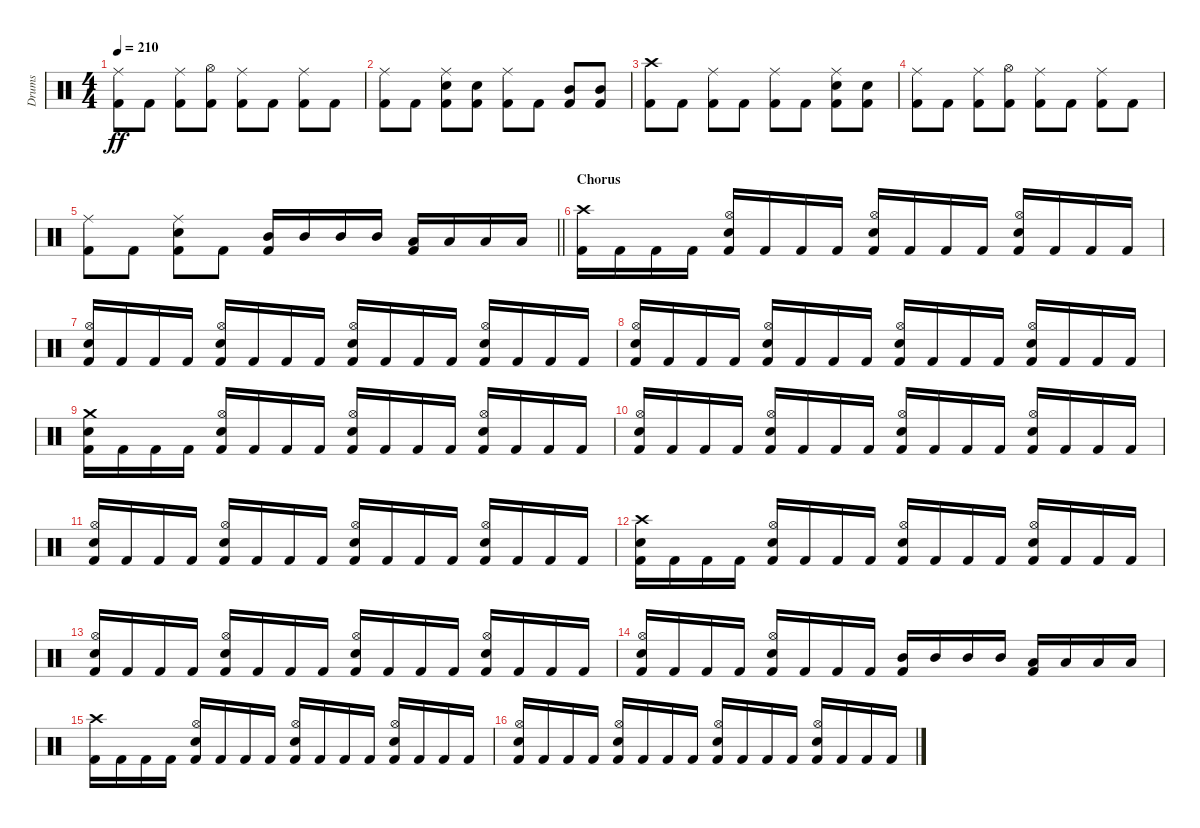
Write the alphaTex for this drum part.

\track ("Drums" "Drums") {instrument percussion}
\staff {score}
\articulation defaults
\ts (4 4)
\tempo 210
\clef neutral
\ks c
("Ride (middle)" "Kick (hit) 2").8{dy ff} "Kick (hit) 2".8 ("Ride (middle)" "Kick (hit) 2").8 ("Hi-Hat (open)" "Kick (hit) 2").8 ("Ride (middle)" "Kick (hit) 2").8 "Kick (hit) 2".8 ("Ride (middle)" "Kick (hit) 2").8 "Kick (hit) 2".8 |
("Ride (middle)" "Kick (hit) 2").8 "Kick (hit) 2".8 ("Ride (middle)" "Snare (hit) 2" "Kick (hit) 2").8 ("Snare (hit) 2" "Kick (hit) 2").8 ("Ride (middle)" "Kick (hit) 2").8 "Kick (hit) 2".8 ("Mid Tom (hit)" "Kick (hit) 2").8 ("Mid Tom (hit)" "Kick (hit) 2").8 |
("Crash high (hit)" "Kick (hit) 2").8 "Kick (hit) 2".8 ("Ride (middle)" "Kick (hit) 2").8 "Kick (hit) 2".8 ("Ride (middle)" "Kick (hit) 2").8 "Kick (hit) 2".8 ("Ride (middle)" "Snare (hit) 2" "Kick (hit) 2").8 ("Snare (hit) 2" "Kick (hit) 2").8 |
("Ride (middle)" "Kick (hit) 2").8 "Kick (hit) 2".8 ("Ride (middle)" "Kick (hit) 2").8 ("Hi-Hat (open)" "Kick (hit) 2").8 ("Ride (middle)" "Kick (hit) 2").8 "Kick (hit) 2".8 ("Ride (middle)" "Kick (hit) 2").8 "Kick (hit) 2".8 |
\barLineRight lightlight
("Ride (middle)" "Kick (hit) 2").8 "Kick (hit) 2".8 ("Ride (middle)" "Snare (hit) 2" "Kick (hit) 2").8 "Kick (hit) 2".8 ("Mid Tom (hit)" "Kick (hit) 2").16 "Mid Tom (hit)".16 "Mid Tom (hit)".16 "Mid Tom (hit)".16 ("Low Tom (hit)" "Kick (hit) 2").16 "Low Tom (hit)".16 "Low Tom (hit)".16 "Low Tom (hit)".16 |
\section ("" "Chorus")
("Crash high (hit)" "Kick (hit) 2").16 "Kick (hit) 2".16 "Kick (hit) 2".16 "Kick (hit) 2".16 ("Hi-Hat (open)" "Snare (hit) 2" "Kick (hit) 2").16 "Kick (hit) 2".16 "Kick (hit) 2".16 "Kick (hit) 2".16 ("Hi-Hat (open)" "Snare (hit) 2" "Kick (hit) 2").16 "Kick (hit) 2".16 "Kick (hit) 2".16 "Kick (hit) 2".16 ("Hi-Hat (open)" "Snare (hit) 2" "Kick (hit) 2").16 "Kick (hit) 2".16 "Kick (hit) 2".16 "Kick (hit) 2".16 |
("Hi-Hat (open)" "Snare (hit) 2" "Kick (hit) 2").16 "Kick (hit) 2".16 "Kick (hit) 2".16 "Kick (hit) 2".16 ("Hi-Hat (open)" "Snare (hit) 2" "Kick (hit) 2").16 "Kick (hit) 2".16 "Kick (hit) 2".16 "Kick (hit) 2".16 ("Hi-Hat (open)" "Snare (hit) 2" "Kick (hit) 2").16 "Kick (hit) 2".16 "Kick (hit) 2".16 "Kick (hit) 2".16 ("Hi-Hat (open)" "Snare (hit) 2" "Kick (hit) 2").16 "Kick (hit) 2".16 "Kick (hit) 2".16 "Kick (hit) 2".16 |
("Hi-Hat (open)" "Snare (hit) 2" "Kick (hit) 2").16 "Kick (hit) 2".16 "Kick (hit) 2".16 "Kick (hit) 2".16 ("Hi-Hat (open)" "Snare (hit) 2" "Kick (hit) 2").16 "Kick (hit) 2".16 "Kick (hit) 2".16 "Kick (hit) 2".16 ("Hi-Hat (open)" "Snare (hit) 2" "Kick (hit) 2").16 "Kick (hit) 2".16 "Kick (hit) 2".16 "Kick (hit) 2".16 ("Hi-Hat (open)" "Snare (hit) 2" "Kick (hit) 2").16 "Kick (hit) 2".16 "Kick (hit) 2".16 "Kick (hit) 2".16 |
("Crash medium (hit)" "Snare (hit) 2" "Kick (hit) 2").16 "Kick (hit) 2".16 "Kick (hit) 2".16 "Kick (hit) 2".16 ("Hi-Hat (open)" "Snare (hit) 2" "Kick (hit) 2").16 "Kick (hit) 2".16 "Kick (hit) 2".16 "Kick (hit) 2".16 ("Hi-Hat (open)" "Snare (hit) 2" "Kick (hit) 2").16 "Kick (hit) 2".16 "Kick (hit) 2".16 "Kick (hit) 2".16 ("Hi-Hat (open)" "Snare (hit) 2" "Kick (hit) 2").16 "Kick (hit) 2".16 "Kick (hit) 2".16 "Kick (hit) 2".16 |
("Hi-Hat (open)" "Snare (hit) 2" "Kick (hit) 2").16 "Kick (hit) 2".16 "Kick (hit) 2".16 "Kick (hit) 2".16 ("Hi-Hat (open)" "Snare (hit) 2" "Kick (hit) 2").16 "Kick (hit) 2".16 "Kick (hit) 2".16 "Kick (hit) 2".16 ("Hi-Hat (open)" "Snare (hit) 2" "Kick (hit) 2").16 "Kick (hit) 2".16 "Kick (hit) 2".16 "Kick (hit) 2".16 ("Hi-Hat (open)" "Snare (hit) 2" "Kick (hit) 2").16 "Kick (hit) 2".16 "Kick (hit) 2".16 "Kick (hit) 2".16 |
("Hi-Hat (open)" "Snare (hit) 2" "Kick (hit) 2").16 "Kick (hit) 2".16 "Kick (hit) 2".16 "Kick (hit) 2".16 ("Hi-Hat (open)" "Snare (hit) 2" "Kick (hit) 2").16 "Kick (hit) 2".16 "Kick (hit) 2".16 "Kick (hit) 2".16 ("Hi-Hat (open)" "Snare (hit) 2" "Kick (hit) 2").16 "Kick (hit) 2".16 "Kick (hit) 2".16 "Kick (hit) 2".16 ("Hi-Hat (open)" "Snare (hit) 2" "Kick (hit) 2").16 "Kick (hit) 2".16 "Kick (hit) 2".16 "Kick (hit) 2".16 |
("Crash high (hit)" "Snare (hit) 2" "Kick (hit) 2").16 "Kick (hit) 2".16 "Kick (hit) 2".16 "Kick (hit) 2".16 ("Hi-Hat (open)" "Snare (hit) 2" "Kick (hit) 2").16 "Kick (hit) 2".16 "Kick (hit) 2".16 "Kick (hit) 2".16 ("Hi-Hat (open)" "Snare (hit) 2" "Kick (hit) 2").16 "Kick (hit) 2".16 "Kick (hit) 2".16 "Kick (hit) 2".16 ("Hi-Hat (open)" "Snare (hit) 2" "Kick (hit) 2").16 "Kick (hit) 2".16 "Kick (hit) 2".16 "Kick (hit) 2".16 |
("Hi-Hat (open)" "Snare (hit) 2" "Kick (hit) 2").16 "Kick (hit) 2".16 "Kick (hit) 2".16 "Kick (hit) 2".16 ("Hi-Hat (open)" "Snare (hit) 2" "Kick (hit) 2").16 "Kick (hit) 2".16 "Kick (hit) 2".16 "Kick (hit) 2".16 ("Hi-Hat (open)" "Snare (hit) 2" "Kick (hit) 2").16 "Kick (hit) 2".16 "Kick (hit) 2".16 "Kick (hit) 2".16 ("Hi-Hat (open)" "Snare (hit) 2" "Kick (hit) 2").16 "Kick (hit) 2".16 "Kick (hit) 2".16 "Kick (hit) 2".16 |
("Hi-Hat (open)" "Snare (hit) 2" "Kick (hit) 2").16 "Kick (hit) 2".16 "Kick (hit) 2".16 "Kick (hit) 2".16 ("Hi-Hat (open)" "Snare (hit) 2" "Kick (hit) 2").16 "Kick (hit) 2".16 "Kick (hit) 2".16 "Kick (hit) 2".16 ("Mid Tom (hit)" "Kick (hit) 2").16 "Mid Tom (hit)".16 "Mid Tom (hit)".16 "Mid Tom (hit)".16 ("Low Tom (hit)" "Kick (hit) 2").16 "Low Tom (hit)".16 "Low Tom (hit)".16 "Low Tom (hit)".16 |
("Crash high (hit)" "Kick (hit) 2").16 "Kick (hit) 2".16 "Kick (hit) 2".16 "Kick (hit) 2".16 ("Hi-Hat (open)" "Snare (hit) 2" "Kick (hit) 2").16 "Kick (hit) 2".16 "Kick (hit) 2".16 "Kick (hit) 2".16 ("Hi-Hat (open)" "Snare (hit) 2" "Kick (hit) 2").16 "Kick (hit) 2".16 "Kick (hit) 2".16 "Kick (hit) 2".16 ("Hi-Hat (open)" "Snare (hit) 2" "Kick (hit) 2").16 "Kick (hit) 2".16 "Kick (hit) 2".16 "Kick (hit) 2".16 |
("Hi-Hat (open)" "Snare (hit) 2" "Kick (hit) 2").16 "Kick (hit) 2".16 "Kick (hit) 2".16 "Kick (hit) 2".16 ("Hi-Hat (open)" "Snare (hit) 2" "Kick (hit) 2").16 "Kick (hit) 2".16 "Kick (hit) 2".16 "Kick (hit) 2".16 ("Hi-Hat (open)" "Snare (hit) 2" "Kick (hit) 2").16 "Kick (hit) 2".16 "Kick (hit) 2".16 "Kick (hit) 2".16 ("Hi-Hat (open)" "Snare (hit) 2" "Kick (hit) 2").16 "Kick (hit) 2".16 "Kick (hit) 2".16 "Kick (hit) 2".16
